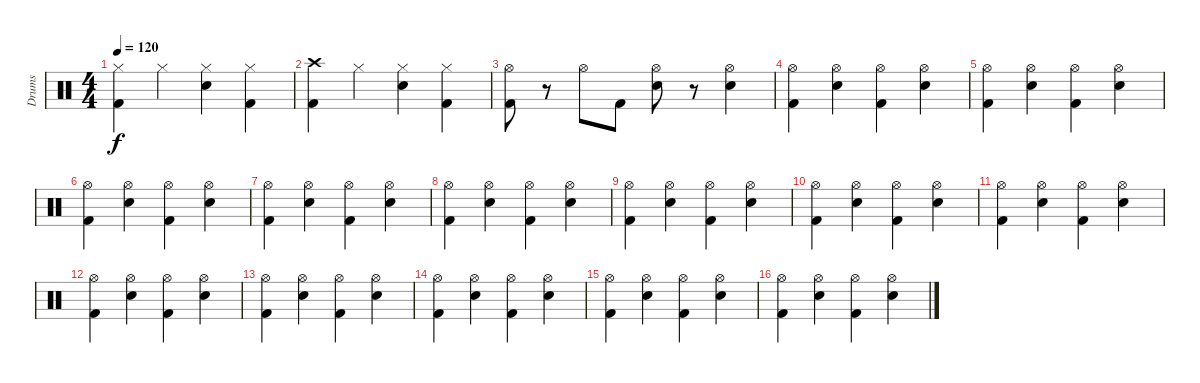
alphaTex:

\track ("Drums" "Drums") {instrument percussion}
\staff {score}
\articulation defaults
\ts (4 4)
\tempo 120
\clef neutral
\ks c
("Kick (hit) 2" "Hi-Hat (closed)").4{dy f} "Hi-Hat (closed)".4 ("Snare (hit) 2" "Hi-Hat (closed)").4 ("Kick (hit) 2" "Hi-Hat (closed)").4 |
("Kick (hit) 2" "Crash high (hit)").4 "Hi-Hat (closed)".4 ("Snare (hit) 2" "Hi-Hat (closed)").4 ("Kick (hit) 2" "Hi-Hat (closed)").4 |
("Kick (hit) 2" "Hi-Hat (open)").8 r.8 "Hi-Hat (open)".8 "Kick (hit) 2".8 ("Snare (hit) 2" "Hi-Hat (open)").8 r.8 ("Snare (hit) 2" "Hi-Hat (open)").4 |
("Kick (hit) 2" "Hi-Hat (open)").4 ("Snare (hit) 2" "Hi-Hat (open)").4 ("Kick (hit) 2" "Hi-Hat (open)").4 ("Snare (hit) 2" "Hi-Hat (open)").4 |
("Kick (hit) 2" "Hi-Hat (open)").4 ("Snare (hit) 2" "Hi-Hat (open)").4 ("Kick (hit) 2" "Hi-Hat (open)").4 ("Snare (hit) 2" "Hi-Hat (open)").4 |
("Kick (hit) 2" "Hi-Hat (open)").4 ("Snare (hit) 2" "Hi-Hat (open)").4 ("Kick (hit) 2" "Hi-Hat (open)").4 ("Snare (hit) 2" "Hi-Hat (open)").4 |
("Kick (hit) 2" "Hi-Hat (open)").4 ("Snare (hit) 2" "Hi-Hat (open)").4 ("Kick (hit) 2" "Hi-Hat (open)").4 ("Snare (hit) 2" "Hi-Hat (open)").4 |
("Kick (hit) 2" "Hi-Hat (open)").4 ("Snare (hit) 2" "Hi-Hat (open)").4 ("Kick (hit) 2" "Hi-Hat (open)").4 ("Snare (hit) 2" "Hi-Hat (open)").4 |
("Kick (hit) 2" "Hi-Hat (open)").4 ("Snare (hit) 2" "Hi-Hat (open)").4 ("Kick (hit) 2" "Hi-Hat (open)").4 ("Snare (hit) 2" "Hi-Hat (open)").4 |
("Kick (hit) 2" "Hi-Hat (open)").4 ("Snare (hit) 2" "Hi-Hat (open)").4 ("Kick (hit) 2" "Hi-Hat (open)").4 ("Snare (hit) 2" "Hi-Hat (open)").4 |
("Kick (hit) 2" "Hi-Hat (open)").4 ("Snare (hit) 2" "Hi-Hat (open)").4 ("Kick (hit) 2" "Hi-Hat (open)").4 ("Snare (hit) 2" "Hi-Hat (open)").4 |
("Kick (hit) 2" "Hi-Hat (open)").4 ("Snare (hit) 2" "Hi-Hat (open)").4 ("Kick (hit) 2" "Hi-Hat (open)").4 ("Snare (hit) 2" "Hi-Hat (open)").4 |
("Kick (hit) 2" "Hi-Hat (open)").4 ("Snare (hit) 2" "Hi-Hat (open)").4 ("Kick (hit) 2" "Hi-Hat (open)").4 ("Snare (hit) 2" "Hi-Hat (open)").4 |
("Kick (hit) 2" "Hi-Hat (open)").4 ("Snare (hit) 2" "Hi-Hat (open)").4 ("Kick (hit) 2" "Hi-Hat (open)").4 ("Snare (hit) 2" "Hi-Hat (open)").4 |
("Kick (hit) 2" "Hi-Hat (open)").4 ("Snare (hit) 2" "Hi-Hat (open)").4 ("Kick (hit) 2" "Hi-Hat (open)").4 ("Snare (hit) 2" "Hi-Hat (open)").4 |
("Kick (hit) 2" "Hi-Hat (open)").4 ("Snare (hit) 2" "Hi-Hat (open)").4 ("Kick (hit) 2" "Hi-Hat (open)").4 ("Snare (hit) 2" "Hi-Hat (open)").4
